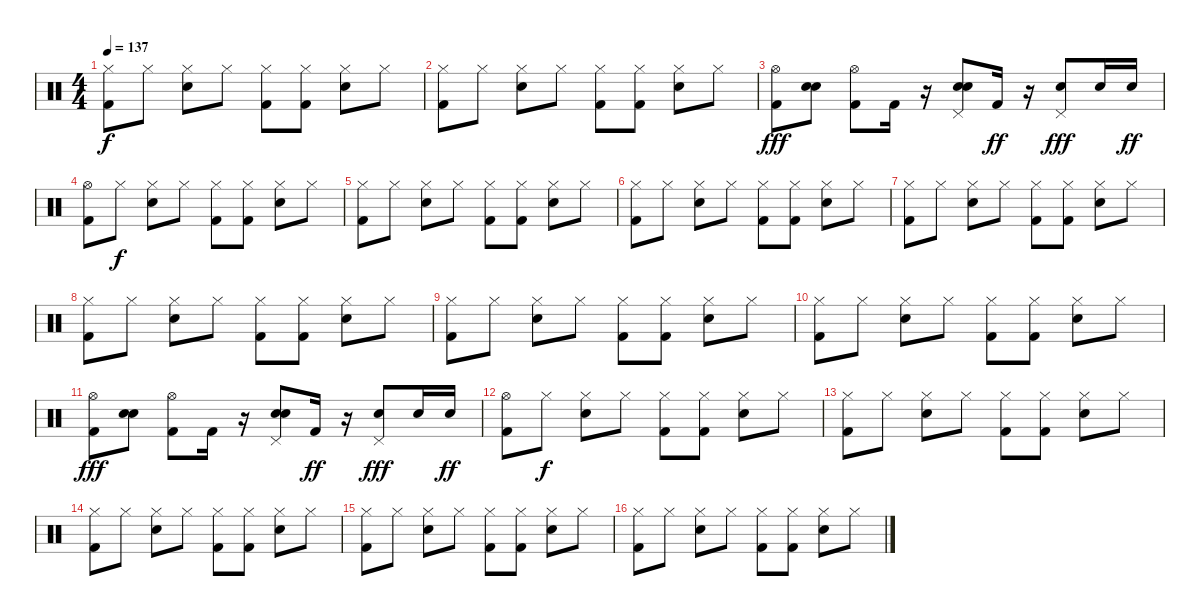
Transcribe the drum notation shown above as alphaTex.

\track "" {instrument percussion}
\staff {score}
\articulation defaults
\ts (4 4)
\tempo 137
\clef neutral
\ks c
("Kick (hit) 2" "Hi-Hat (closed)").8{dy f} "Hi-Hat (closed)".8 ("Hi-Hat (closed)" "Electric Snare (hit)").8 "Hi-Hat (closed)".8 ("Kick (hit) 2" "Hi-Hat (closed)").8 ("Kick (hit) 2" "Hi-Hat (closed)").8 ("Electric Snare (hit)" "Hi-Hat (closed)").8 "Hi-Hat (closed)".8 |
("Kick (hit) 2" "Hi-Hat (closed)").8 "Hi-Hat (closed)".8 ("Hi-Hat (closed)" "Electric Snare (hit)").8 "Hi-Hat (closed)".8 ("Kick (hit) 2" "Hi-Hat (closed)").8 ("Kick (hit) 2" "Hi-Hat (closed)").8 ("Electric Snare (hit)" "Hi-Hat (closed)").8 "Hi-Hat (closed)".8 |
("Hi-Hat (open)" "Kick (hit) 2").8{dy fff} ("Electric Snare (hit)" "Electric Snare (hit)").8 ("Hi-Hat (open)" "Kick (hit) 2").8 "Kick (hit) 2".16 r.16 ("Electric Snare (hit)" "Pedal Hi-Hat (hit)" "Electric Snare (hit)").8 "Kick (hit) 2".16{dy ff} r.16 ("Pedal Hi-Hat (hit)" "Electric Snare (hit)").8{dy fff} "Electric Snare (hit)".16 "Electric Snare (hit)".16{dy ff} |
("Kick (hit) 2" "Hi-Hat (open)").8 "Hi-Hat (closed)".8{dy f} ("Hi-Hat (closed)" "Electric Snare (hit)").8 "Hi-Hat (closed)".8 ("Kick (hit) 2" "Hi-Hat (closed)").8 ("Kick (hit) 2" "Hi-Hat (closed)").8 ("Electric Snare (hit)" "Hi-Hat (closed)").8 "Hi-Hat (closed)".8 |
("Kick (hit) 2" "Hi-Hat (closed)").8 "Hi-Hat (closed)".8 ("Hi-Hat (closed)" "Electric Snare (hit)").8 "Hi-Hat (closed)".8 ("Kick (hit) 2" "Hi-Hat (closed)").8 ("Kick (hit) 2" "Hi-Hat (closed)").8 ("Electric Snare (hit)" "Hi-Hat (closed)").8 "Hi-Hat (closed)".8 |
("Kick (hit) 2" "Hi-Hat (closed)").8 "Hi-Hat (closed)".8 ("Hi-Hat (closed)" "Electric Snare (hit)").8 "Hi-Hat (closed)".8 ("Kick (hit) 2" "Hi-Hat (closed)").8 ("Kick (hit) 2" "Hi-Hat (closed)").8 ("Electric Snare (hit)" "Hi-Hat (closed)").8 "Hi-Hat (closed)".8 |
("Kick (hit) 2" "Hi-Hat (closed)").8 "Hi-Hat (closed)".8 ("Hi-Hat (closed)" "Electric Snare (hit)").8 "Hi-Hat (closed)".8 ("Kick (hit) 2" "Hi-Hat (closed)").8 ("Kick (hit) 2" "Hi-Hat (closed)").8 ("Electric Snare (hit)" "Hi-Hat (closed)").8 "Hi-Hat (closed)".8 |
("Kick (hit) 2" "Hi-Hat (closed)").8 "Hi-Hat (closed)".8 ("Hi-Hat (closed)" "Electric Snare (hit)").8 "Hi-Hat (closed)".8 ("Kick (hit) 2" "Hi-Hat (closed)").8 ("Kick (hit) 2" "Hi-Hat (closed)").8 ("Electric Snare (hit)" "Hi-Hat (closed)").8 "Hi-Hat (closed)".8 |
("Kick (hit) 2" "Hi-Hat (closed)").8 "Hi-Hat (closed)".8 ("Hi-Hat (closed)" "Electric Snare (hit)").8 "Hi-Hat (closed)".8 ("Kick (hit) 2" "Hi-Hat (closed)").8 ("Kick (hit) 2" "Hi-Hat (closed)").8 ("Electric Snare (hit)" "Hi-Hat (closed)").8 "Hi-Hat (closed)".8 |
("Kick (hit) 2" "Hi-Hat (closed)").8 "Hi-Hat (closed)".8 ("Hi-Hat (closed)" "Electric Snare (hit)").8 "Hi-Hat (closed)".8 ("Kick (hit) 2" "Hi-Hat (closed)").8 ("Kick (hit) 2" "Hi-Hat (closed)").8 ("Electric Snare (hit)" "Hi-Hat (closed)").8 "Hi-Hat (closed)".8 |
("Hi-Hat (open)" "Kick (hit) 2").8{dy fff} ("Electric Snare (hit)" "Electric Snare (hit)").8 ("Hi-Hat (open)" "Kick (hit) 2").8 "Kick (hit) 2".16 r.16 ("Electric Snare (hit)" "Pedal Hi-Hat (hit)" "Electric Snare (hit)").8 "Kick (hit) 2".16{dy ff} r.16 ("Pedal Hi-Hat (hit)" "Electric Snare (hit)").8{dy fff} "Electric Snare (hit)".16 "Electric Snare (hit)".16{dy ff} |
("Kick (hit) 2" "Hi-Hat (open)").8 "Hi-Hat (closed)".8{dy f} ("Hi-Hat (closed)" "Electric Snare (hit)").8 "Hi-Hat (closed)".8 ("Kick (hit) 2" "Hi-Hat (closed)").8 ("Kick (hit) 2" "Hi-Hat (closed)").8 ("Electric Snare (hit)" "Hi-Hat (closed)").8 "Hi-Hat (closed)".8 |
("Kick (hit) 2" "Hi-Hat (closed)").8 "Hi-Hat (closed)".8 ("Hi-Hat (closed)" "Electric Snare (hit)").8 "Hi-Hat (closed)".8 ("Kick (hit) 2" "Hi-Hat (closed)").8 ("Kick (hit) 2" "Hi-Hat (closed)").8 ("Electric Snare (hit)" "Hi-Hat (closed)").8 "Hi-Hat (closed)".8 |
("Kick (hit) 2" "Hi-Hat (closed)").8 "Hi-Hat (closed)".8 ("Hi-Hat (closed)" "Electric Snare (hit)").8 "Hi-Hat (closed)".8 ("Kick (hit) 2" "Hi-Hat (closed)").8 ("Kick (hit) 2" "Hi-Hat (closed)").8 ("Electric Snare (hit)" "Hi-Hat (closed)").8 "Hi-Hat (closed)".8 |
("Kick (hit) 2" "Hi-Hat (closed)").8 "Hi-Hat (closed)".8 ("Hi-Hat (closed)" "Electric Snare (hit)").8 "Hi-Hat (closed)".8 ("Kick (hit) 2" "Hi-Hat (closed)").8 ("Kick (hit) 2" "Hi-Hat (closed)").8 ("Electric Snare (hit)" "Hi-Hat (closed)").8 "Hi-Hat (closed)".8 |
("Kick (hit) 2" "Hi-Hat (closed)").8 "Hi-Hat (closed)".8 ("Hi-Hat (closed)" "Electric Snare (hit)").8 "Hi-Hat (closed)".8 ("Kick (hit) 2" "Hi-Hat (closed)").8 ("Kick (hit) 2" "Hi-Hat (closed)").8 ("Electric Snare (hit)" "Hi-Hat (closed)").8 "Hi-Hat (closed)".8
